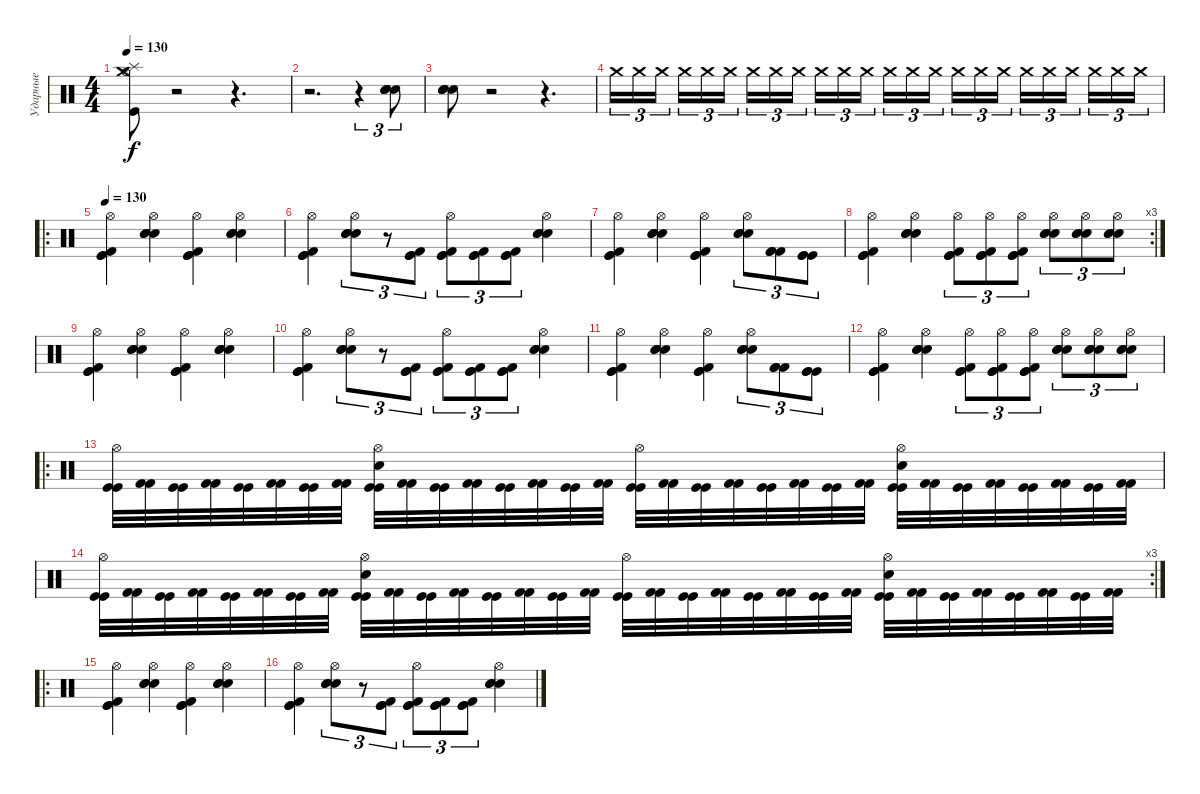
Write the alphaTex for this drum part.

\track ("Ударные" "Ударные") {instrument percussion}
\staff {score}
\articulation defaults
\ts (4 4)
\tempo 130
\clef neutral
\ks c
("Crash medium (hit)" "Splash (hit)" "Hi-Hat (open)" "Kick (hit)").8{dy f} r.2 r.4{d} |
r.2{d} r.4{tu (3 2)} ("Electric Snare (hit)" "Electric Snare (hit)" "Electric Snare (hit)" "Electric Snare (hit)").8{tu (3 2)} |
("Electric Snare (hit)" "Electric Snare (hit)" "Electric Snare (hit)" "Electric Snare (hit)").8 r.2 r.4{d volume 0} |
"Crash medium (hit)".16{tu (3 2) volume 12} "Crash medium (hit)".16{tu (3 2)} "Crash medium (hit)".16{tu (3 2) beam splitsecondary} "Crash medium (hit)".16{tu (3 2)} "Crash medium (hit)".16{tu (3 2)} "Crash medium (hit)".16{tu (3 2)} "Crash medium (hit)".16{tu (3 2)} "Crash medium (hit)".16{tu (3 2)} "Crash medium (hit)".16{tu (3 2) beam splitsecondary} "Crash medium (hit)".16{tu (3 2)} "Crash medium (hit)".16{tu (3 2)} "Crash medium (hit)".16{tu (3 2)} "Crash medium (hit)".16{tu (3 2)} "Crash medium (hit)".16{tu (3 2)} "Crash medium (hit)".16{tu (3 2) beam splitsecondary} "Crash medium (hit)".16{tu (3 2)} "Crash medium (hit)".16{tu (3 2)} "Crash medium (hit)".16{tu (3 2)} "Crash medium (hit)".16{tu (3 2)} "Crash medium (hit)".16{tu (3 2)} "Crash medium (hit)".16{tu (3 2) beam splitsecondary} "Crash medium (hit)".16{tu (3 2)} "Crash medium (hit)".16{tu (3 2)} "Crash medium (hit)".16{tu (3 2)} |
\ro
\tempo 130
("Hi-Hat (open)" "Kick (hit) 2" "Kick (hit)" "Kick (hit)").4 ("Hi-Hat (open)" "Electric Snare (hit)" "Electric Snare (hit)" "Electric Snare (hit)").4 ("Hi-Hat (open)" "Kick (hit) 2" "Kick (hit)" "Kick (hit)").4 ("Hi-Hat (open)" "Electric Snare (hit)" "Electric Snare (hit)" "Electric Snare (hit)").4 |
("Hi-Hat (open)" "Kick (hit) 2" "Kick (hit)" "Kick (hit)").4 ("Hi-Hat (open)" "Electric Snare (hit)" "Electric Snare (hit)" "Electric Snare (hit)").8{tu (3 2)} r.8{tu (3 2)} ("Kick (hit) 2" "Kick (hit)" "Kick (hit)").8{tu (3 2)} ("Hi-Hat (open)" "Kick (hit) 2" "Kick (hit)" "Kick (hit)").8{tu (3 2)} ("Kick (hit) 2" "Kick (hit)" "Kick (hit)").8{tu (3 2)} ("Kick (hit) 2" "Kick (hit)" "Kick (hit)").8{tu (3 2)} ("Hi-Hat (open)" "Electric Snare (hit)" "Electric Snare (hit)" "Electric Snare (hit)").4 |
("Hi-Hat (open)" "Kick (hit) 2" "Kick (hit)" "Kick (hit)").4 ("Hi-Hat (open)" "Electric Snare (hit)" "Electric Snare (hit)" "Electric Snare (hit)").4 ("Hi-Hat (open)" "Kick (hit) 2" "Kick (hit)" "Kick (hit)").4 ("Hi-Hat (open)" "Electric Snare (hit)" "Electric Snare (hit)" "Electric Snare (hit)").8{tu (3 2)} ("Kick (hit) 2" "Kick (hit) 2" "Kick (hit) 2").8{tu (3 2)} ("Kick (hit)" "Kick (hit)" "Kick (hit)").8{tu (3 2)} |
\rc 3
("Hi-Hat (open)" "Kick (hit) 2" "Kick (hit)" "Kick (hit)").4 ("Hi-Hat (open)" "Electric Snare (hit)" "Electric Snare (hit)" "Electric Snare (hit)").4 ("Hi-Hat (open)" "Kick (hit) 2" "Kick (hit)" "Kick (hit)").8{tu (3 2)} ("Hi-Hat (open)" "Kick (hit) 2" "Kick (hit)" "Kick (hit)").8{tu (3 2)} ("Hi-Hat (open)" "Kick (hit) 2" "Kick (hit)" "Kick (hit)").8{tu (3 2)} ("Hi-Hat (open)" "Electric Snare (hit)" "Electric Snare (hit)" "Electric Snare (hit)").8{tu (3 2)} ("Hi-Hat (open)" "Electric Snare (hit)" "Electric Snare (hit)" "Electric Snare (hit)").8{tu (3 2)} ("Hi-Hat (open)" "Electric Snare (hit)" "Electric Snare (hit)" "Electric Snare (hit)").8{tu (3 2)} |
("Hi-Hat (open)" "Kick (hit) 2" "Kick (hit)" "Kick (hit)").4 ("Hi-Hat (open)" "Electric Snare (hit)" "Electric Snare (hit)" "Electric Snare (hit)").4 ("Hi-Hat (open)" "Kick (hit) 2" "Kick (hit)" "Kick (hit)").4 ("Hi-Hat (open)" "Electric Snare (hit)" "Electric Snare (hit)" "Electric Snare (hit)").4 |
("Hi-Hat (open)" "Kick (hit) 2" "Kick (hit)" "Kick (hit)").4 ("Hi-Hat (open)" "Electric Snare (hit)" "Electric Snare (hit)" "Electric Snare (hit)").8{tu (3 2)} r.8{tu (3 2)} ("Kick (hit) 2" "Kick (hit)" "Kick (hit)").8{tu (3 2)} ("Hi-Hat (open)" "Kick (hit) 2" "Kick (hit)" "Kick (hit)").8{tu (3 2)} ("Kick (hit) 2" "Kick (hit)" "Kick (hit)").8{tu (3 2)} ("Kick (hit) 2" "Kick (hit)" "Kick (hit)").8{tu (3 2)} ("Hi-Hat (open)" "Electric Snare (hit)" "Electric Snare (hit)" "Electric Snare (hit)").4 |
("Hi-Hat (open)" "Kick (hit) 2" "Kick (hit)" "Kick (hit)").4 ("Hi-Hat (open)" "Electric Snare (hit)" "Electric Snare (hit)" "Electric Snare (hit)").4 ("Hi-Hat (open)" "Kick (hit) 2" "Kick (hit)" "Kick (hit)").4 ("Hi-Hat (open)" "Electric Snare (hit)" "Electric Snare (hit)" "Electric Snare (hit)").8{tu (3 2)} ("Kick (hit) 2" "Kick (hit) 2" "Kick (hit) 2").8{tu (3 2)} ("Kick (hit)" "Kick (hit)" "Kick (hit)").8{tu (3 2)} |
("Hi-Hat (open)" "Kick (hit) 2" "Kick (hit)" "Kick (hit)").4 ("Hi-Hat (open)" "Electric Snare (hit)" "Electric Snare (hit)" "Electric Snare (hit)").4 ("Hi-Hat (open)" "Kick (hit) 2" "Kick (hit)" "Kick (hit)").8{tu (3 2)} ("Hi-Hat (open)" "Kick (hit) 2" "Kick (hit)" "Kick (hit)").8{tu (3 2)} ("Hi-Hat (open)" "Kick (hit) 2" "Kick (hit)" "Kick (hit)").8{tu (3 2)} ("Hi-Hat (open)" "Electric Snare (hit)" "Electric Snare (hit)" "Electric Snare (hit)").8{tu (3 2)} ("Hi-Hat (open)" "Electric Snare (hit)" "Electric Snare (hit)" "Electric Snare (hit)").8{tu (3 2)} ("Hi-Hat (open)" "Electric Snare (hit)" "Electric Snare (hit)" "Electric Snare (hit)").8{tu (3 2)} |
\ro
("Hi-Hat (open)" "Kick (hit)" "Kick (hit)").32 ("Kick (hit) 2" "Kick (hit) 2").32 ("Kick (hit)" "Kick (hit)").32 ("Kick (hit) 2" "Kick (hit) 2").32 ("Kick (hit)" "Kick (hit)").32 ("Kick (hit) 2" "Kick (hit) 2").32 ("Kick (hit)" "Kick (hit)").32 ("Kick (hit) 2" "Kick (hit) 2").32 ("Electric Snare (hit)" "Hi-Hat (open)" "Kick (hit)" "Kick (hit)").32 ("Kick (hit) 2" "Kick (hit) 2").32 ("Kick (hit)" "Kick (hit)").32 ("Kick (hit) 2" "Kick (hit) 2").32 ("Kick (hit)" "Kick (hit)").32 ("Kick (hit) 2" "Kick (hit) 2").32 ("Kick (hit)" "Kick (hit)").32 ("Kick (hit) 2" "Kick (hit) 2").32 ("Hi-Hat (open)" "Kick (hit)" "Kick (hit)").32 ("Kick (hit) 2" "Kick (hit) 2").32 ("Kick (hit)" "Kick (hit)").32 ("Kick (hit) 2" "Kick (hit) 2").32 ("Kick (hit)" "Kick (hit)").32 ("Kick (hit) 2" "Kick (hit) 2").32 ("Kick (hit)" "Kick (hit)").32 ("Kick (hit) 2" "Kick (hit) 2").32 ("Electric Snare (hit)" "Hi-Hat (open)" "Kick (hit)" "Kick (hit)").32 ("Kick (hit) 2" "Kick (hit) 2").32 ("Kick (hit)" "Kick (hit)").32 ("Kick (hit) 2" "Kick (hit) 2").32 ("Kick (hit)" "Kick (hit)").32 ("Kick (hit) 2" "Kick (hit) 2").32 ("Kick (hit)" "Kick (hit)").32 ("Kick (hit) 2" "Kick (hit) 2").32 |
\rc 3
("Hi-Hat (open)" "Kick (hit)" "Kick (hit)").32 ("Kick (hit) 2" "Kick (hit) 2").32 ("Kick (hit)" "Kick (hit)").32 ("Kick (hit) 2" "Kick (hit) 2").32 ("Kick (hit)" "Kick (hit)").32 ("Kick (hit) 2" "Kick (hit) 2").32 ("Kick (hit)" "Kick (hit)").32 ("Kick (hit) 2" "Kick (hit) 2").32 ("Electric Snare (hit)" "Hi-Hat (open)" "Kick (hit)" "Kick (hit)").32 ("Kick (hit) 2" "Kick (hit) 2").32 ("Kick (hit)" "Kick (hit)").32 ("Kick (hit) 2" "Kick (hit) 2").32 ("Kick (hit)" "Kick (hit)").32 ("Kick (hit) 2" "Kick (hit) 2").32 ("Kick (hit)" "Kick (hit)").32 ("Kick (hit) 2" "Kick (hit) 2").32 ("Hi-Hat (open)" "Kick (hit)" "Kick (hit)").32 ("Kick (hit) 2" "Kick (hit) 2").32 ("Kick (hit)" "Kick (hit)").32 ("Kick (hit) 2" "Kick (hit) 2").32 ("Kick (hit)" "Kick (hit)").32 ("Kick (hit) 2" "Kick (hit) 2").32 ("Kick (hit)" "Kick (hit)").32 ("Kick (hit) 2" "Kick (hit) 2").32 ("Electric Snare (hit)" "Hi-Hat (open)" "Kick (hit)" "Kick (hit)").32 ("Kick (hit) 2" "Kick (hit) 2").32 ("Kick (hit)" "Kick (hit)").32 ("Kick (hit) 2" "Kick (hit) 2").32 ("Kick (hit)" "Kick (hit)").32 ("Kick (hit) 2" "Kick (hit) 2").32 ("Kick (hit)" "Kick (hit)").32 ("Kick (hit) 2" "Kick (hit) 2").32 |
\ro
("Hi-Hat (open)" "Kick (hit) 2" "Kick (hit)" "Kick (hit)").4 ("Hi-Hat (open)" "Electric Snare (hit)" "Electric Snare (hit)" "Electric Snare (hit)").4 ("Hi-Hat (open)" "Kick (hit) 2" "Kick (hit)" "Kick (hit)").4 ("Hi-Hat (open)" "Electric Snare (hit)" "Electric Snare (hit)" "Electric Snare (hit)").4 |
("Hi-Hat (open)" "Kick (hit) 2" "Kick (hit)" "Kick (hit)").4 ("Hi-Hat (open)" "Electric Snare (hit)" "Electric Snare (hit)" "Electric Snare (hit)").8{tu (3 2)} r.8{tu (3 2)} ("Kick (hit) 2" "Kick (hit)" "Kick (hit)").8{tu (3 2)} ("Hi-Hat (open)" "Kick (hit) 2" "Kick (hit)" "Kick (hit)").8{tu (3 2)} ("Kick (hit) 2" "Kick (hit)" "Kick (hit)").8{tu (3 2)} ("Kick (hit) 2" "Kick (hit)" "Kick (hit)").8{tu (3 2)} ("Hi-Hat (open)" "Electric Snare (hit)" "Electric Snare (hit)" "Electric Snare (hit)").4
